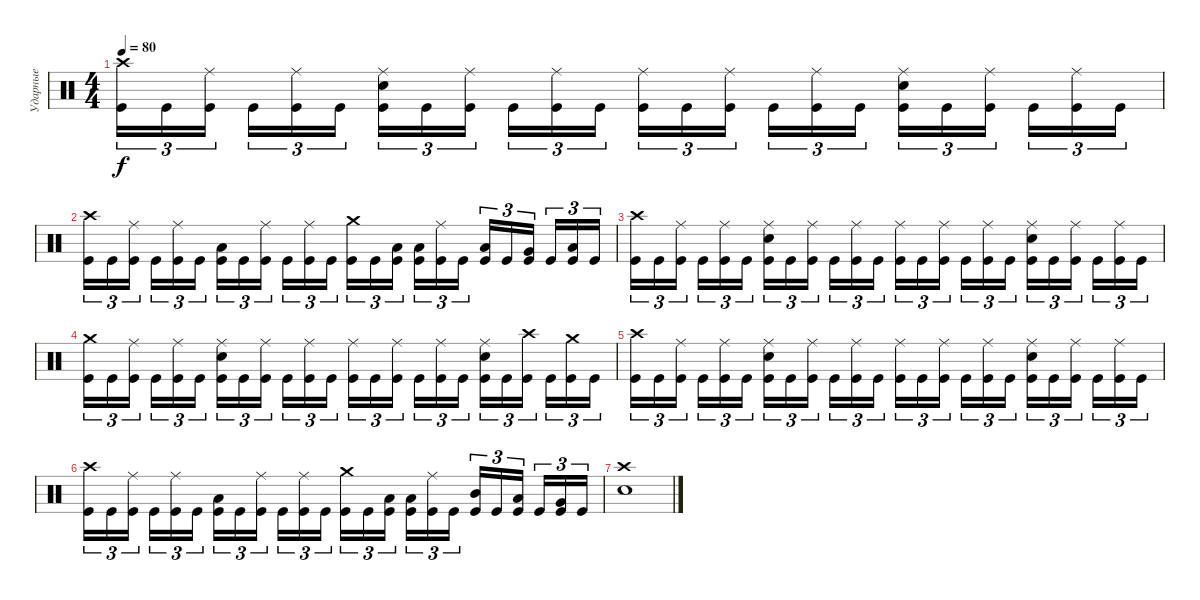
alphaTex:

\track ("Ударные" "Ударные") {instrument percussion}
\staff {score}
\articulation defaults
\ts (4 4)
\tempo 80
\clef neutral
\ks c
("Crash high (hit)" "Kick (hit)").16{tu (3 2) dy f} "Kick (hit)".16{tu (3 2)} ("Ride (middle)" "Kick (hit)").16{tu (3 2)} "Kick (hit)".16{tu (3 2)} ("Ride (middle)" "Kick (hit)").16{tu (3 2)} "Kick (hit)".16{tu (3 2)} ("Ride (middle)" "Electric Snare (hit)" "Kick (hit)").16{tu (3 2)} "Kick (hit)".16{tu (3 2)} ("Ride (middle)" "Kick (hit)").16{tu (3 2)} "Kick (hit)".16{tu (3 2)} ("Ride (middle)" "Kick (hit)").16{tu (3 2)} "Kick (hit)".16{tu (3 2)} ("Ride (middle)" "Kick (hit)").16{tu (3 2)} "Kick (hit)".16{tu (3 2)} ("Ride (middle)" "Kick (hit)").16{tu (3 2)} "Kick (hit)".16{tu (3 2)} ("Ride (middle)" "Kick (hit)").16{tu (3 2)} "Kick (hit)".16{tu (3 2)} ("Ride (middle)" "Electric Snare (hit)" "Kick (hit)").16{tu (3 2)} "Kick (hit)".16{tu (3 2)} ("Ride (middle)" "Kick (hit)").16{tu (3 2)} "Kick (hit)".16{tu (3 2)} ("Ride (middle)" "Kick (hit)").16{tu (3 2)} "Kick (hit)".16{tu (3 2)} |
("Crash high (hit)" "Kick (hit)").16{tu (3 2)} "Kick (hit)".16{tu (3 2)} ("Ride (middle)" "Kick (hit)").16{tu (3 2)} "Kick (hit)".16{tu (3 2)} ("Ride (middle)" "Kick (hit)").16{tu (3 2)} "Kick (hit)".16{tu (3 2)} ("Low Floor Tom (hit)" "Kick (hit)").16{tu (3 2)} "Kick (hit)".16{tu (3 2)} ("Ride (middle)" "Kick (hit)").16{tu (3 2)} "Kick (hit)".16{tu (3 2)} ("Ride (middle)" "Kick (hit)").16{tu (3 2)} "Kick (hit)".16{tu (3 2)} ("Crash medium (hit)" "Kick (hit)").16{tu (3 2)} "Kick (hit)".16{tu (3 2)} ("Low Floor Tom (hit)" "Kick (hit)").16{tu (3 2)} ("Low Floor Tom (hit)" "Kick (hit)").16{tu (3 2)} ("Ride (middle)" "Kick (hit)").16{tu (3 2)} "Kick (hit)".16{tu (3 2)} ("Low Tom (hit)" "Kick (hit)").16{tu (3 2)} "Kick (hit)".16{tu (3 2)} ("Very Low Tom (hit)" "Kick (hit)").16{tu (3 2)} "Kick (hit)".16{tu (3 2)} ("Low Floor Tom (hit)" "Kick (hit)").16{tu (3 2)} "Kick (hit)".16{tu (3 2)} |
("Crash high (hit)" "Kick (hit)").16{tu (3 2)} "Kick (hit)".16{tu (3 2)} ("Ride (middle)" "Kick (hit)").16{tu (3 2)} "Kick (hit)".16{tu (3 2)} ("Ride (middle)" "Kick (hit)").16{tu (3 2)} "Kick (hit)".16{tu (3 2)} ("Ride (middle)" "Electric Snare (hit)" "Kick (hit)").16{tu (3 2)} "Kick (hit)".16{tu (3 2)} ("Ride (middle)" "Kick (hit)").16{tu (3 2)} "Kick (hit)".16{tu (3 2)} ("Ride (middle)" "Kick (hit)").16{tu (3 2)} "Kick (hit)".16{tu (3 2)} ("Ride (middle)" "Kick (hit)").16{tu (3 2)} "Kick (hit)".16{tu (3 2)} ("Ride (middle)" "Kick (hit)").16{tu (3 2)} "Kick (hit)".16{tu (3 2)} ("Ride (middle)" "Kick (hit)").16{tu (3 2)} "Kick (hit)".16{tu (3 2)} ("Ride (middle)" "Electric Snare (hit)" "Kick (hit)").16{tu (3 2)} "Kick (hit)".16{tu (3 2)} ("Ride (middle)" "Kick (hit)").16{tu (3 2)} "Kick (hit)".16{tu (3 2)} ("Ride (middle)" "Kick (hit)").16{tu (3 2)} "Kick (hit)".16{tu (3 2)} |
("Crash medium (hit)" "Kick (hit)").16{tu (3 2)} "Kick (hit)".16{tu (3 2)} ("Ride (middle)" "Kick (hit)").16{tu (3 2)} "Kick (hit)".16{tu (3 2)} ("Ride (middle)" "Kick (hit)").16{tu (3 2)} "Kick (hit)".16{tu (3 2)} ("Ride (middle)" "Electric Snare (hit)" "Kick (hit)").16{tu (3 2)} "Kick (hit)".16{tu (3 2)} ("Ride (middle)" "Kick (hit)").16{tu (3 2)} "Kick (hit)".16{tu (3 2)} ("Ride (middle)" "Kick (hit)").16{tu (3 2)} "Kick (hit)".16{tu (3 2)} ("Ride (middle)" "Kick (hit)").16{tu (3 2)} "Kick (hit)".16{tu (3 2)} ("Ride (middle)" "Kick (hit)").16{tu (3 2)} "Kick (hit)".16{tu (3 2)} ("Ride (middle)" "Kick (hit)").16{tu (3 2)} "Kick (hit)".16{tu (3 2)} ("Ride (middle)" "Electric Snare (hit)" "Kick (hit)").16{tu (3 2)} "Kick (hit)".16{tu (3 2)} ("Crash high (hit)" "Kick (hit)").16{tu (3 2)} "Kick (hit)".16{tu (3 2)} ("Crash medium (hit)" "Kick (hit)").16{tu (3 2)} "Kick (hit)".16{tu (3 2)} |
("Crash high (hit)" "Kick (hit)").16{tu (3 2)} "Kick (hit)".16{tu (3 2)} ("Ride (middle)" "Kick (hit)").16{tu (3 2)} "Kick (hit)".16{tu (3 2)} ("Ride (middle)" "Kick (hit)").16{tu (3 2)} "Kick (hit)".16{tu (3 2)} ("Ride (middle)" "Electric Snare (hit)" "Kick (hit)").16{tu (3 2)} "Kick (hit)".16{tu (3 2)} ("Ride (middle)" "Kick (hit)").16{tu (3 2)} "Kick (hit)".16{tu (3 2)} ("Ride (middle)" "Kick (hit)").16{tu (3 2)} "Kick (hit)".16{tu (3 2)} ("Ride (middle)" "Kick (hit)").16{tu (3 2)} "Kick (hit)".16{tu (3 2)} ("Ride (middle)" "Kick (hit)").16{tu (3 2)} "Kick (hit)".16{tu (3 2)} ("Ride (middle)" "Kick (hit)").16{tu (3 2)} "Kick (hit)".16{tu (3 2)} ("Ride (middle)" "Electric Snare (hit)" "Kick (hit)").16{tu (3 2)} "Kick (hit)".16{tu (3 2)} ("Ride (middle)" "Kick (hit)").16{tu (3 2)} "Kick (hit)".16{tu (3 2)} ("Ride (middle)" "Kick (hit)").16{tu (3 2)} "Kick (hit)".16{tu (3 2)} |
("Crash high (hit)" "Kick (hit)").16{tu (3 2)} "Kick (hit)".16{tu (3 2)} ("Ride (middle)" "Kick (hit)").16{tu (3 2)} "Kick (hit)".16{tu (3 2)} ("Ride (middle)" "Kick (hit)").16{tu (3 2)} "Kick (hit)".16{tu (3 2)} ("Low Floor Tom (hit)" "Kick (hit)").16{tu (3 2)} "Kick (hit)".16{tu (3 2)} ("Ride (middle)" "Kick (hit)").16{tu (3 2)} "Kick (hit)".16{tu (3 2)} ("Ride (middle)" "Kick (hit)").16{tu (3 2)} "Kick (hit)".16{tu (3 2)} ("Crash medium (hit)" "Kick (hit)").16{tu (3 2)} "Kick (hit)".16{tu (3 2)} ("Low Floor Tom (hit)" "Kick (hit)").16{tu (3 2)} ("Low Floor Tom (hit)" "Kick (hit)").16{tu (3 2)} ("Ride (middle)" "Kick (hit)").16{tu (3 2)} "Kick (hit)".16{tu (3 2)} ("Mid Tom (hit)" "Kick (hit)").16{tu (3 2)} "Kick (hit)".16{tu (3 2)} ("Low Tom (hit)" "Kick (hit)").16{tu (3 2)} "Kick (hit)".16{tu (3 2)} ("Very Low Tom (hit)" "Kick (hit)").16{tu (3 2)} "Kick (hit)".16{tu (3 2)} |
("Crash high (hit)" "Electric Snare (hit)").1
